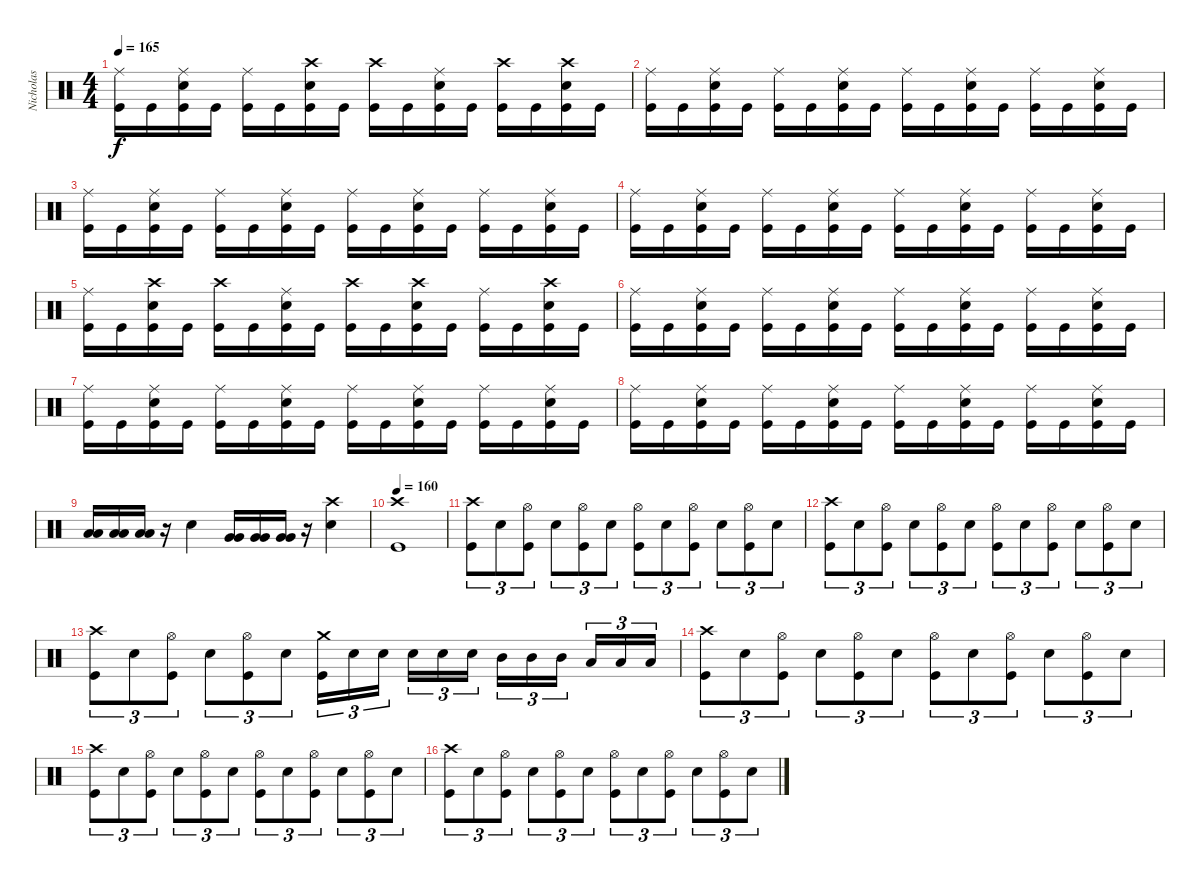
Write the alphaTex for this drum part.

\track ("Nicholas" "Nicholas") {instrument percussion}
\staff {score}
\articulation defaults
\ts (4 4)
\tempo 165
\clef neutral
\ks c
("Ride (middle)" "Kick (hit)").16{dy f} "Kick (hit)".16 ("Ride (middle)" "Electric Snare (hit)" "Kick (hit)").16 "Kick (hit)".16 ("Ride (middle)" "Kick (hit)").16 "Kick (hit)".16 ("Crash high (hit)" "Electric Snare (hit)" "Kick (hit)").16 "Kick (hit)".16 ("Crash high (hit)" "Kick (hit)").16 "Kick (hit)".16 ("Ride (middle)" "Electric Snare (hit)" "Kick (hit)").16 "Kick (hit)".16 ("Crash high (hit)" "Kick (hit)").16 "Kick (hit)".16 ("Crash high (hit)" "Electric Snare (hit)" "Kick (hit)").16 "Kick (hit)".16 |
("Ride (middle)" "Kick (hit)").16 "Kick (hit)".16 ("Ride (middle)" "Electric Snare (hit)" "Kick (hit)").16 "Kick (hit)".16 ("Ride (middle)" "Kick (hit)").16 "Kick (hit)".16 ("Ride (middle)" "Electric Snare (hit)" "Kick (hit)").16 "Kick (hit)".16 ("Ride (middle)" "Kick (hit)").16 "Kick (hit)".16 ("Ride (middle)" "Electric Snare (hit)" "Kick (hit)").16 "Kick (hit)".16 ("Ride (middle)" "Kick (hit)").16 "Kick (hit)".16 ("Ride (middle)" "Electric Snare (hit)" "Kick (hit)").16 "Kick (hit)".16 |
("Ride (middle)" "Kick (hit)").16 "Kick (hit)".16 ("Ride (middle)" "Electric Snare (hit)" "Kick (hit)").16 "Kick (hit)".16 ("Ride (middle)" "Kick (hit)").16 "Kick (hit)".16 ("Ride (middle)" "Electric Snare (hit)" "Kick (hit)").16 "Kick (hit)".16 ("Ride (middle)" "Kick (hit)").16 "Kick (hit)".16 ("Ride (middle)" "Electric Snare (hit)" "Kick (hit)").16 "Kick (hit)".16 ("Ride (middle)" "Kick (hit)").16 "Kick (hit)".16 ("Ride (middle)" "Electric Snare (hit)" "Kick (hit)").16 "Kick (hit)".16 |
("Ride (middle)" "Kick (hit)").16 "Kick (hit)".16 ("Ride (middle)" "Electric Snare (hit)" "Kick (hit)").16 "Kick (hit)".16 ("Ride (middle)" "Kick (hit)").16 "Kick (hit)".16 ("Ride (middle)" "Electric Snare (hit)" "Kick (hit)").16 "Kick (hit)".16 ("Ride (middle)" "Kick (hit)").16 "Kick (hit)".16 ("Ride (middle)" "Electric Snare (hit)" "Kick (hit)").16 "Kick (hit)".16 ("Ride (middle)" "Kick (hit)").16 "Kick (hit)".16 ("Ride (middle)" "Electric Snare (hit)" "Kick (hit)").16 "Kick (hit)".16 |
("Ride (middle)" "Kick (hit)").16 "Kick (hit)".16 ("Crash high (hit)" "Electric Snare (hit)" "Kick (hit)").16 "Kick (hit)".16 ("Crash high (hit)" "Kick (hit)").16 "Kick (hit)".16 ("Ride (middle)" "Electric Snare (hit)" "Kick (hit)").16 "Kick (hit)".16 ("Crash high (hit)" "Kick (hit)").16 "Kick (hit)".16 ("Crash high (hit)" "Electric Snare (hit)" "Kick (hit)").16 "Kick (hit)".16 ("Ride (middle)" "Kick (hit)").16 "Kick (hit)".16 ("Crash high (hit)" "Electric Snare (hit)" "Kick (hit)").16 "Kick (hit)".16 |
("Ride (middle)" "Kick (hit)").16 "Kick (hit)".16 ("Ride (middle)" "Electric Snare (hit)" "Kick (hit)").16 "Kick (hit)".16 ("Ride (middle)" "Kick (hit)").16 "Kick (hit)".16 ("Ride (middle)" "Electric Snare (hit)" "Kick (hit)").16 "Kick (hit)".16 ("Ride (middle)" "Kick (hit)").16 "Kick (hit)".16 ("Ride (middle)" "Electric Snare (hit)" "Kick (hit)").16 "Kick (hit)".16 ("Ride (middle)" "Kick (hit)").16 "Kick (hit)".16 ("Ride (middle)" "Electric Snare (hit)" "Kick (hit)").16 "Kick (hit)".16 |
("Ride (middle)" "Kick (hit)").16 "Kick (hit)".16 ("Ride (middle)" "Electric Snare (hit)" "Kick (hit)").16 "Kick (hit)".16 ("Ride (middle)" "Kick (hit)").16 "Kick (hit)".16 ("Ride (middle)" "Electric Snare (hit)" "Kick (hit)").16 "Kick (hit)".16 ("Ride (middle)" "Kick (hit)").16 "Kick (hit)".16 ("Ride (middle)" "Electric Snare (hit)" "Kick (hit)").16 "Kick (hit)".16 ("Ride (middle)" "Kick (hit)").16 "Kick (hit)".16 ("Ride (middle)" "Electric Snare (hit)" "Kick (hit)").16 "Kick (hit)".16 |
("Ride (middle)" "Kick (hit)").16 "Kick (hit)".16 ("Ride (middle)" "Electric Snare (hit)" "Kick (hit)").16 "Kick (hit)".16 ("Ride (middle)" "Kick (hit)").16 "Kick (hit)".16 ("Ride (middle)" "Electric Snare (hit)" "Kick (hit)").16 "Kick (hit)".16 ("Ride (middle)" "Kick (hit)").16 "Kick (hit)".16 ("Ride (middle)" "Electric Snare (hit)" "Kick (hit)").16 "Kick (hit)".16 ("Ride (middle)" "Kick (hit)").16 "Kick (hit)".16 ("Ride (middle)" "Electric Snare (hit)" "Kick (hit)").16 "Kick (hit)".16 |
("Low Tom (hit)" "Low Tom (hit)").16 ("Low Tom (hit)" "Low Tom (hit)").16 ("Low Tom (hit)" "Low Tom (hit)").16 r.16 "Electric Snare (hit)".4 ("Very Low Tom (hit)" "Very Low Tom (hit)").16 ("Very Low Tom (hit)" "Very Low Tom (hit)").16 ("Very Low Tom (hit)" "Very Low Tom (hit)").16 r.16 ("Electric Snare (hit)" "Crash high (hit)").4 |
\tempo 160
("Crash high (hit)" "Kick (hit)").1 |
("Crash high (hit)" "Kick (hit)").8{tu (3 2)} "Electric Snare (hit)".8{tu (3 2)} ("Hi-Hat (open)" "Kick (hit)").8{tu (3 2)} "Electric Snare (hit)".8{tu (3 2)} ("Hi-Hat (open)" "Kick (hit)").8{tu (3 2)} "Electric Snare (hit)".8{tu (3 2)} ("Hi-Hat (open)" "Kick (hit)").8{tu (3 2)} "Electric Snare (hit)".8{tu (3 2)} ("Hi-Hat (open)" "Kick (hit)").8{tu (3 2)} "Electric Snare (hit)".8{tu (3 2)} ("Hi-Hat (open)" "Kick (hit)").8{tu (3 2)} "Electric Snare (hit)".8{tu (3 2)} |
("Crash high (hit)" "Kick (hit)").8{tu (3 2)} "Electric Snare (hit)".8{tu (3 2)} ("Hi-Hat (open)" "Kick (hit)").8{tu (3 2)} "Electric Snare (hit)".8{tu (3 2)} ("Hi-Hat (open)" "Kick (hit)").8{tu (3 2)} "Electric Snare (hit)".8{tu (3 2)} ("Hi-Hat (open)" "Kick (hit)").8{tu (3 2)} "Electric Snare (hit)".8{tu (3 2)} ("Hi-Hat (open)" "Kick (hit)").8{tu (3 2)} "Electric Snare (hit)".8{tu (3 2)} ("Hi-Hat (open)" "Kick (hit)").8{tu (3 2)} "Electric Snare (hit)".8{tu (3 2)} |
("Crash high (hit)" "Kick (hit)").8{tu (3 2)} "Electric Snare (hit)".8{tu (3 2)} ("Hi-Hat (open)" "Kick (hit)").8{tu (3 2)} "Electric Snare (hit)".8{tu (3 2)} ("Hi-Hat (open)" "Kick (hit)").8{tu (3 2)} "Electric Snare (hit)".8{tu (3 2)} ("Crash medium (hit)" "Kick (hit)").16{tu (3 2)} "Electric Snare (hit)".16{tu (3 2)} "Electric Snare (hit)".16{tu (3 2)} "Electric Snare (hit)".16{tu (3 2)} "Electric Snare (hit)".16{tu (3 2)} "Electric Snare (hit)".16{tu (3 2)} "Mid Tom (hit)".16{tu (3 2)} "Mid Tom (hit)".16{tu (3 2)} "Mid Tom (hit)".16{tu (3 2)} "Low Tom (hit)".16{tu (3 2)} "Low Tom (hit)".16{tu (3 2)} "Low Tom (hit)".16{tu (3 2)} |
("Crash high (hit)" "Kick (hit)").8{tu (3 2)} "Electric Snare (hit)".8{tu (3 2)} ("Hi-Hat (open)" "Kick (hit)").8{tu (3 2)} "Electric Snare (hit)".8{tu (3 2)} ("Hi-Hat (open)" "Kick (hit)").8{tu (3 2)} "Electric Snare (hit)".8{tu (3 2)} ("Hi-Hat (open)" "Kick (hit)").8{tu (3 2)} "Electric Snare (hit)".8{tu (3 2)} ("Hi-Hat (open)" "Kick (hit)").8{tu (3 2)} "Electric Snare (hit)".8{tu (3 2)} ("Hi-Hat (open)" "Kick (hit)").8{tu (3 2)} "Electric Snare (hit)".8{tu (3 2)} |
("Crash high (hit)" "Kick (hit)").8{tu (3 2)} "Electric Snare (hit)".8{tu (3 2)} ("Hi-Hat (open)" "Kick (hit)").8{tu (3 2)} "Electric Snare (hit)".8{tu (3 2)} ("Hi-Hat (open)" "Kick (hit)").8{tu (3 2)} "Electric Snare (hit)".8{tu (3 2)} ("Hi-Hat (open)" "Kick (hit)").8{tu (3 2)} "Electric Snare (hit)".8{tu (3 2)} ("Hi-Hat (open)" "Kick (hit)").8{tu (3 2)} "Electric Snare (hit)".8{tu (3 2)} ("Hi-Hat (open)" "Kick (hit)").8{tu (3 2)} "Electric Snare (hit)".8{tu (3 2)} |
("Crash high (hit)" "Kick (hit)").8{tu (3 2)} "Electric Snare (hit)".8{tu (3 2)} ("Hi-Hat (open)" "Kick (hit)").8{tu (3 2)} "Electric Snare (hit)".8{tu (3 2)} ("Hi-Hat (open)" "Kick (hit)").8{tu (3 2)} "Electric Snare (hit)".8{tu (3 2)} ("Hi-Hat (open)" "Kick (hit)").8{tu (3 2)} "Electric Snare (hit)".8{tu (3 2)} ("Hi-Hat (open)" "Kick (hit)").8{tu (3 2)} "Electric Snare (hit)".8{tu (3 2)} ("Hi-Hat (open)" "Kick (hit)").8{tu (3 2)} "Electric Snare (hit)".8{tu (3 2)}
